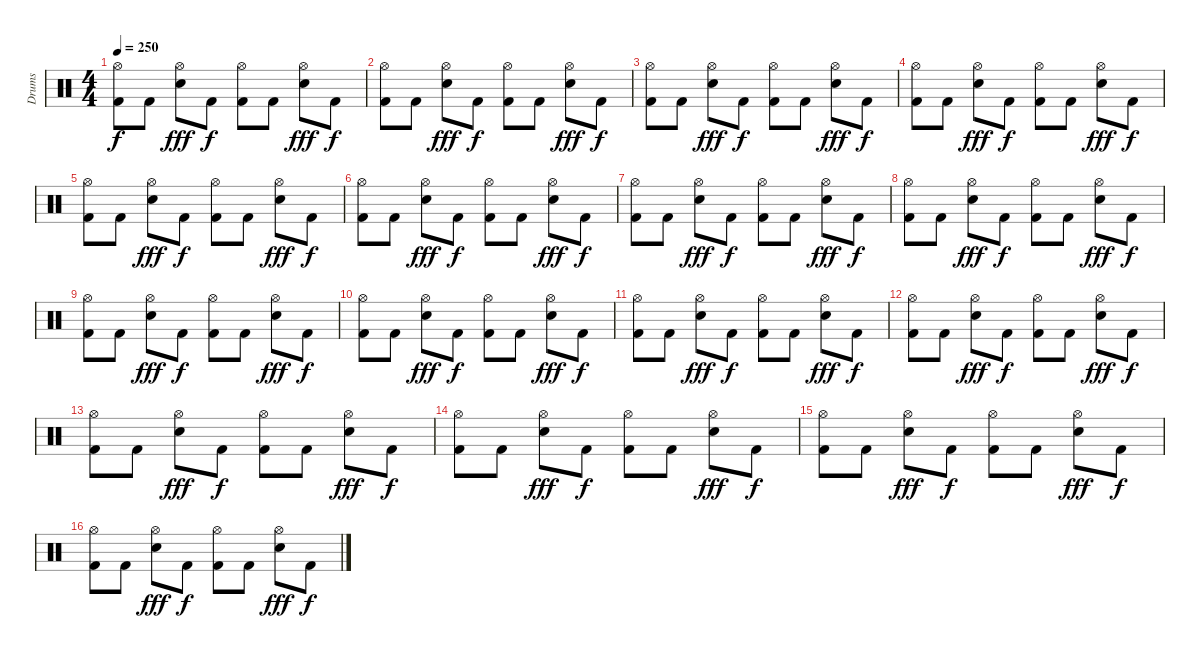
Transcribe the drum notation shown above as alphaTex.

\track ("Drums" "Drums") {instrument percussion}
\staff {score}
\articulation defaults
\ts (4 4)
\tempo 250
\clef neutral
\ks c
("Kick (hit) 2" "Hi-Hat (open)").8{dy f} "Kick (hit) 2".8 ("Hi-Hat (open)" "Snare (hit) 2").8{dy fff} "Kick (hit) 2".8{dy f} ("Hi-Hat (open)" "Kick (hit) 2").8 "Kick (hit) 2".8 ("Hi-Hat (open)" "Snare (hit) 2").8{dy fff} "Kick (hit) 2".8{dy f} |
("Kick (hit) 2" "Hi-Hat (open)").8 "Kick (hit) 2".8 ("Hi-Hat (open)" "Snare (hit) 2").8{dy fff} "Kick (hit) 2".8{dy f} ("Hi-Hat (open)" "Kick (hit) 2").8 "Kick (hit) 2".8 ("Hi-Hat (open)" "Snare (hit) 2").8{dy fff} "Kick (hit) 2".8{dy f} |
("Kick (hit) 2" "Hi-Hat (open)").8 "Kick (hit) 2".8 ("Hi-Hat (open)" "Snare (hit) 2").8{dy fff} "Kick (hit) 2".8{dy f} ("Hi-Hat (open)" "Kick (hit) 2").8 "Kick (hit) 2".8 ("Hi-Hat (open)" "Snare (hit) 2").8{dy fff} "Kick (hit) 2".8{dy f} |
("Kick (hit) 2" "Hi-Hat (open)").8 "Kick (hit) 2".8 ("Hi-Hat (open)" "Snare (hit) 2").8{dy fff} "Kick (hit) 2".8{dy f} ("Hi-Hat (open)" "Kick (hit) 2").8 "Kick (hit) 2".8 ("Hi-Hat (open)" "Snare (hit) 2").8{dy fff} "Kick (hit) 2".8{dy f} |
("Kick (hit) 2" "Hi-Hat (open)").8 "Kick (hit) 2".8 ("Hi-Hat (open)" "Snare (hit) 2").8{dy fff} "Kick (hit) 2".8{dy f} ("Hi-Hat (open)" "Kick (hit) 2").8 "Kick (hit) 2".8 ("Hi-Hat (open)" "Snare (hit) 2").8{dy fff} "Kick (hit) 2".8{dy f} |
("Kick (hit) 2" "Hi-Hat (open)").8 "Kick (hit) 2".8 ("Hi-Hat (open)" "Snare (hit) 2").8{dy fff} "Kick (hit) 2".8{dy f} ("Hi-Hat (open)" "Kick (hit) 2").8 "Kick (hit) 2".8 ("Hi-Hat (open)" "Snare (hit) 2").8{dy fff} "Kick (hit) 2".8{dy f} |
("Kick (hit) 2" "Hi-Hat (open)").8 "Kick (hit) 2".8 ("Hi-Hat (open)" "Snare (hit) 2").8{dy fff} "Kick (hit) 2".8{dy f} ("Hi-Hat (open)" "Kick (hit) 2").8 "Kick (hit) 2".8 ("Hi-Hat (open)" "Snare (hit) 2").8{dy fff} "Kick (hit) 2".8{dy f} |
("Kick (hit) 2" "Hi-Hat (open)").8 "Kick (hit) 2".8 ("Hi-Hat (open)" "Snare (hit) 2").8{dy fff} "Kick (hit) 2".8{dy f} ("Hi-Hat (open)" "Kick (hit) 2").8 "Kick (hit) 2".8 ("Hi-Hat (open)" "Snare (hit) 2").8{dy fff} "Kick (hit) 2".8{dy f} |
("Kick (hit) 2" "Hi-Hat (open)").8 "Kick (hit) 2".8 ("Hi-Hat (open)" "Snare (hit) 2").8{dy fff} "Kick (hit) 2".8{dy f} ("Hi-Hat (open)" "Kick (hit) 2").8 "Kick (hit) 2".8 ("Hi-Hat (open)" "Snare (hit) 2").8{dy fff} "Kick (hit) 2".8{dy f} |
("Kick (hit) 2" "Hi-Hat (open)").8 "Kick (hit) 2".8 ("Hi-Hat (open)" "Snare (hit) 2").8{dy fff} "Kick (hit) 2".8{dy f} ("Hi-Hat (open)" "Kick (hit) 2").8 "Kick (hit) 2".8 ("Hi-Hat (open)" "Snare (hit) 2").8{dy fff} "Kick (hit) 2".8{dy f} |
("Kick (hit) 2" "Hi-Hat (open)").8 "Kick (hit) 2".8 ("Hi-Hat (open)" "Snare (hit) 2").8{dy fff} "Kick (hit) 2".8{dy f} ("Hi-Hat (open)" "Kick (hit) 2").8 "Kick (hit) 2".8 ("Hi-Hat (open)" "Snare (hit) 2").8{dy fff} "Kick (hit) 2".8{dy f} |
("Kick (hit) 2" "Hi-Hat (open)").8 "Kick (hit) 2".8 ("Hi-Hat (open)" "Snare (hit) 2").8{dy fff} "Kick (hit) 2".8{dy f} ("Hi-Hat (open)" "Kick (hit) 2").8 "Kick (hit) 2".8 ("Hi-Hat (open)" "Snare (hit) 2").8{dy fff} "Kick (hit) 2".8{dy f} |
("Kick (hit) 2" "Hi-Hat (open)").8 "Kick (hit) 2".8 ("Hi-Hat (open)" "Snare (hit) 2").8{dy fff} "Kick (hit) 2".8{dy f} ("Hi-Hat (open)" "Kick (hit) 2").8 "Kick (hit) 2".8 ("Hi-Hat (open)" "Snare (hit) 2").8{dy fff} "Kick (hit) 2".8{dy f} |
("Kick (hit) 2" "Hi-Hat (open)").8 "Kick (hit) 2".8 ("Hi-Hat (open)" "Snare (hit) 2").8{dy fff} "Kick (hit) 2".8{dy f} ("Hi-Hat (open)" "Kick (hit) 2").8 "Kick (hit) 2".8 ("Hi-Hat (open)" "Snare (hit) 2").8{dy fff} "Kick (hit) 2".8{dy f} |
("Kick (hit) 2" "Hi-Hat (open)").8 "Kick (hit) 2".8 ("Hi-Hat (open)" "Snare (hit) 2").8{dy fff} "Kick (hit) 2".8{dy f} ("Hi-Hat (open)" "Kick (hit) 2").8 "Kick (hit) 2".8 ("Hi-Hat (open)" "Snare (hit) 2").8{dy fff} "Kick (hit) 2".8{dy f} |
("Kick (hit) 2" "Hi-Hat (open)").8 "Kick (hit) 2".8 ("Hi-Hat (open)" "Snare (hit) 2").8{dy fff} "Kick (hit) 2".8{dy f} ("Hi-Hat (open)" "Kick (hit) 2").8 "Kick (hit) 2".8 ("Hi-Hat (open)" "Snare (hit) 2").8{dy fff} "Kick (hit) 2".8{dy f}
